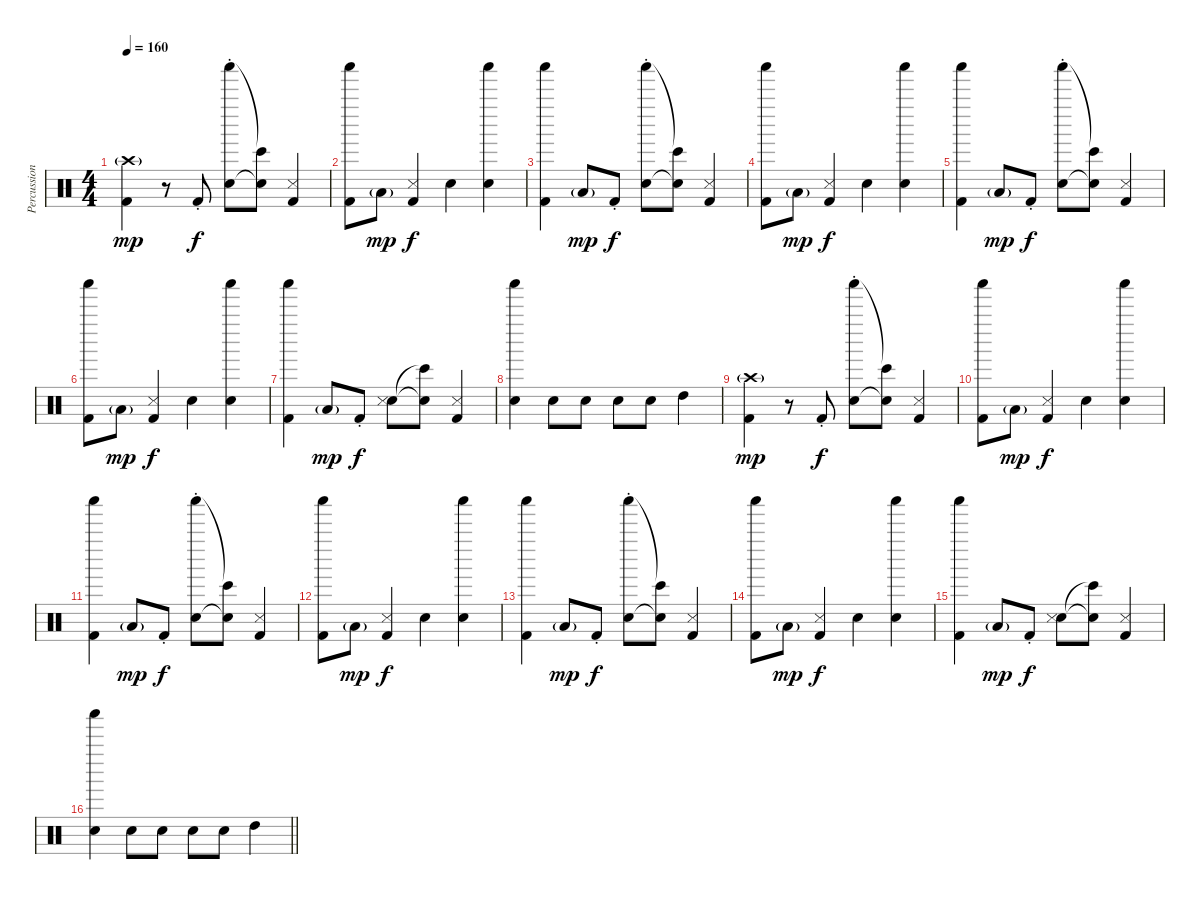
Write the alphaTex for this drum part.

\track ("Percussion" "Percussion") {instrument percussion}
\staff {score}
\articulation defaults
\ts (4 4)
\tempo 160
\clef neutral
\ks c
("Crash high (hit)"{g} "Kick (hit) 2").4{dy mp} r.8 "Kick (hit) 2"{st}.8{dy f} ("Electric Snare (hit)" "Shaker (hit)"{st}).8 ("Electric Snare (hit)"{t} "Bongo High (hit)"{t}).8 ("Kick (hit) 2" "Snare (side stick) 3").4 |
("Kick (hit) 2" "Shaker (hit)").8 "Low Tom (hit)"{g}.8{dy mp} ("Kick (hit) 2" "Snare (side stick) 3").4{dy f} "Electric Snare (hit)".4 ("Electric Snare (hit)" "Shaker (hit)").4 |
("Kick (hit) 2" "Shaker (hit)").4 "Low Tom (hit)"{g}.8{dy mp} "Kick (hit) 2"{st}.8{dy f} ("Electric Snare (hit)" "Shaker (hit)"{st}).8 ("Electric Snare (hit)"{t} "Bongo High (hit)"{t}).8 ("Kick (hit) 2" "Snare (side stick) 3").4 |
("Kick (hit) 2" "Shaker (hit)").8 "Low Tom (hit)"{g}.8{dy mp} ("Kick (hit) 2" "Snare (side stick) 3").4{dy f} "Electric Snare (hit)".4 ("Electric Snare (hit)" "Shaker (hit)").4 |
("Kick (hit) 2" "Shaker (hit)").4 "Low Tom (hit)"{g}.8{dy mp} "Kick (hit) 2"{st}.8{dy f} ("Electric Snare (hit)" "Shaker (hit)"{st}).8 ("Electric Snare (hit)"{t} "Bongo High (hit)"{t}).8 ("Kick (hit) 2" "Snare (side stick) 3").4 |
("Kick (hit) 2" "Shaker (hit)").8 "Low Tom (hit)"{g}.8{dy mp} ("Kick (hit) 2" "Snare (side stick) 3").4{dy f} "Electric Snare (hit)".4 ("Electric Snare (hit)" "Shaker (hit)").4 |
("Kick (hit) 2" "Shaker (hit)").4 "Low Tom (hit)"{g}.8{dy mp} "Kick (hit) 2"{st}.8{dy f} ("Electric Snare (hit)" "Snare (side stick) 3").8 ("Electric Snare (hit)"{t} "Bongo High (hit)"{t}).8 ("Kick (hit) 2" "Snare (side stick) 3").4 |
("Electric Snare (hit)" "Shaker (hit)").4 "Electric Snare (hit)".8 "Electric Snare (hit)".8 "Electric Snare (hit)".8 "Electric Snare (hit)".8 "High Tom (hit)".4 |
("Crash high (hit)"{g} "Kick (hit) 2").4{dy mp} r.8 "Kick (hit) 2"{st}.8{dy f} ("Electric Snare (hit)" "Shaker (hit)"{st}).8 ("Electric Snare (hit)"{t} "Bongo High (hit)"{t}).8 ("Kick (hit) 2" "Snare (side stick) 3").4 |
("Kick (hit) 2" "Shaker (hit)").8 "Low Tom (hit)"{g}.8{dy mp} ("Kick (hit) 2" "Snare (side stick) 3").4{dy f} "Electric Snare (hit)".4 ("Electric Snare (hit)" "Shaker (hit)").4 |
("Kick (hit) 2" "Shaker (hit)").4 "Low Tom (hit)"{g}.8{dy mp} "Kick (hit) 2"{st}.8{dy f} ("Electric Snare (hit)" "Shaker (hit)"{st}).8 ("Electric Snare (hit)"{t} "Bongo High (hit)"{t}).8 ("Kick (hit) 2" "Snare (side stick) 3").4 |
("Kick (hit) 2" "Shaker (hit)").8 "Low Tom (hit)"{g}.8{dy mp} ("Kick (hit) 2" "Snare (side stick) 3").4{dy f} "Electric Snare (hit)".4 ("Electric Snare (hit)" "Shaker (hit)").4 |
("Kick (hit) 2" "Shaker (hit)").4 "Low Tom (hit)"{g}.8{dy mp} "Kick (hit) 2"{st}.8{dy f} ("Electric Snare (hit)" "Shaker (hit)"{st}).8 ("Electric Snare (hit)"{t} "Bongo High (hit)"{t}).8 ("Kick (hit) 2" "Snare (side stick) 3").4 |
("Kick (hit) 2" "Shaker (hit)").8 "Low Tom (hit)"{g}.8{dy mp} ("Kick (hit) 2" "Snare (side stick) 3").4{dy f} "Electric Snare (hit)".4 ("Electric Snare (hit)" "Shaker (hit)").4 |
("Kick (hit) 2" "Shaker (hit)").4 "Low Tom (hit)"{g}.8{dy mp} "Kick (hit) 2"{st}.8{dy f} ("Electric Snare (hit)" "Snare (side stick) 3").8 ("Electric Snare (hit)"{t} "Bongo High (hit)"{t}).8 ("Kick (hit) 2" "Snare (side stick) 3").4 |
\barLineRight lightlight
("Electric Snare (hit)" "Shaker (hit)").4 "Electric Snare (hit)".8 "Electric Snare (hit)".8 "Electric Snare (hit)".8 "Electric Snare (hit)".8 "High Tom (hit)".4
